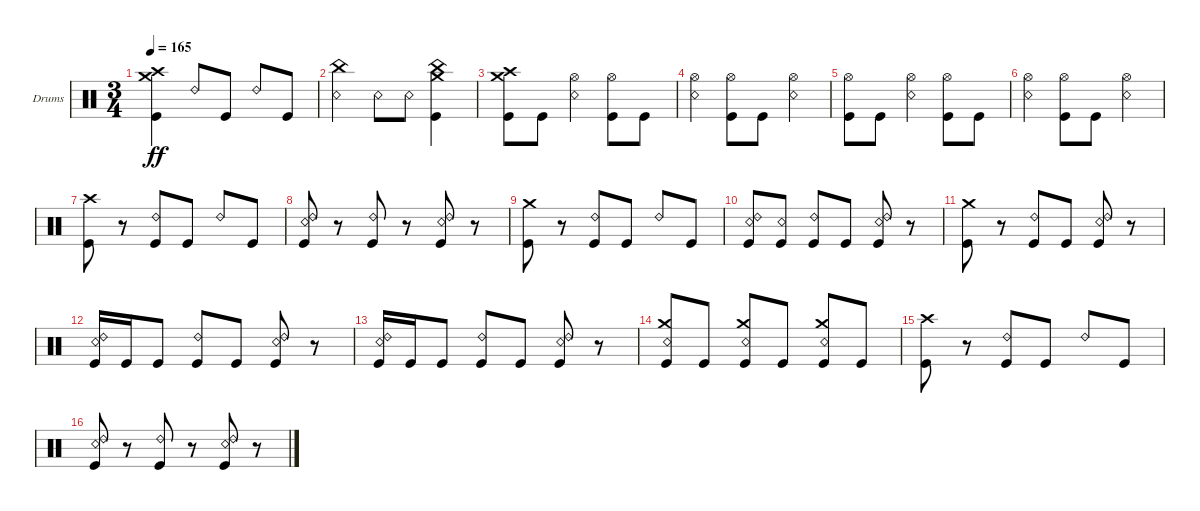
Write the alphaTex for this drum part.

\bracketExtendMode groupsimilarinstruments
\firstSystemTrackNameOrientation horizontal
\otherSystemsTrackNameOrientation horizontal
\track ("Kaleb - Drums" "Drums") {instrument percussion}
\staff {score}
\articulation defaults
\ts (3 4)
\tempo 165
\clef neutral
\ks c
("Kick (hit)" "Crash medium (hit)" "Crash high (hit)").4{dy ff} "Ride (bell) 2".8 "Kick (hit)".8 "Ride (bell) 2".8 "Kick (hit)".8 |
("Snare (rim shot)" "China (hit)").4 "Snare (rim shot)".8 "Snare (rim shot)".8 ("Kick (hit)" "Crash medium (hit)" "China (hit)").4 |
("Kick (hit)" "Crash medium (hit)" "Crash high (hit)").8 "Kick (hit)".8 ("Hi-Hat (open)" "Snare (rim shot)").4 ("Kick (hit)" "Hi-Hat (open)").8 "Kick (hit)".8 |
("Hi-Hat (open)" "Snare (rim shot)").4 ("Kick (hit)" "Hi-Hat (open)").8 "Kick (hit)".8 ("Hi-Hat (open)" "Snare (rim shot)").4 |
("Kick (hit)" "Hi-Hat (open)").8 "Kick (hit)".8 ("Hi-Hat (open)" "Snare (rim shot)").4 ("Kick (hit)" "Hi-Hat (open)").8 "Kick (hit)".8 |
("Hi-Hat (open)" "Snare (rim shot)").4 ("Kick (hit)" "Hi-Hat (open)").8 "Kick (hit)".8 ("Hi-Hat (open)" "Snare (rim shot)").4 |
("Kick (hit)" "Crash high (hit)").8 r.8 ("Kick (hit)" "Ride (bell) 2").8 "Kick (hit)".8 "Ride (bell) 2".8 "Kick (hit)".8 |
("Kick (hit)" "Ride (bell) 2" "Snare (rim shot)").8 r.8 ("Kick (hit)" "Ride (bell) 2").8 r.8 ("Kick (hit)" "Ride (bell) 2" "Snare (rim shot)").8 r.8 |
("Kick (hit)" "Crash medium (hit)").8 r.8 ("Kick (hit)" "Ride (bell) 2").8 "Kick (hit)".8 "Ride (bell) 2".8 "Kick (hit)".8 |
("Kick (hit)" "Ride (bell) 2" "Snare (rim shot)").8 ("Kick (hit)" "Snare (rim shot)").8 ("Kick (hit)" "Ride (bell) 2").8 "Kick (hit)".8 ("Kick (hit)" "Ride (bell) 2" "Snare (rim shot)").8 r.8 |
("Kick (hit)" "Crash medium (hit)").8 r.8 ("Kick (hit)" "Ride (bell) 2").8 "Kick (hit)".8 ("Kick (hit)" "Snare (rim shot)" "Ride (bell) 2").8 r.8 |
("Kick (hit)" "Snare (rim shot)" "Ride (bell) 2").16 "Kick (hit)".16 "Kick (hit)".8 ("Kick (hit)" "Ride (bell) 2").8 "Kick (hit)".8 ("Kick (hit)" "Snare (rim shot)" "Ride (bell) 2").8 r.8 |
("Kick (hit)" "Snare (rim shot)" "Ride (bell) 2").16 "Kick (hit)".16 "Kick (hit)".8 ("Kick (hit)" "Ride (bell) 2").8 "Kick (hit)".8 ("Kick (hit)" "Snare (rim shot)" "Ride (bell) 2").8 r.8 |
("Kick (hit)" "Crash medium (hit)" "Snare (rim shot)").8 "Kick (hit)".8 ("Kick (hit)" "Crash medium (hit)" "Snare (rim shot)").8 "Kick (hit)".8 ("Kick (hit)" "Crash medium (hit)" "Snare (rim shot)").8 "Kick (hit)".8 |
("Kick (hit)" "Crash high (hit)").8 r.8 ("Kick (hit)" "Ride (bell) 2").8 "Kick (hit)".8 "Ride (bell) 2".8 "Kick (hit)".8 |
("Kick (hit)" "Ride (bell) 2" "Snare (rim shot)").8 r.8 ("Kick (hit)" "Ride (bell) 2").8 r.8 ("Kick (hit)" "Ride (bell) 2" "Snare (rim shot)").8 r.8
